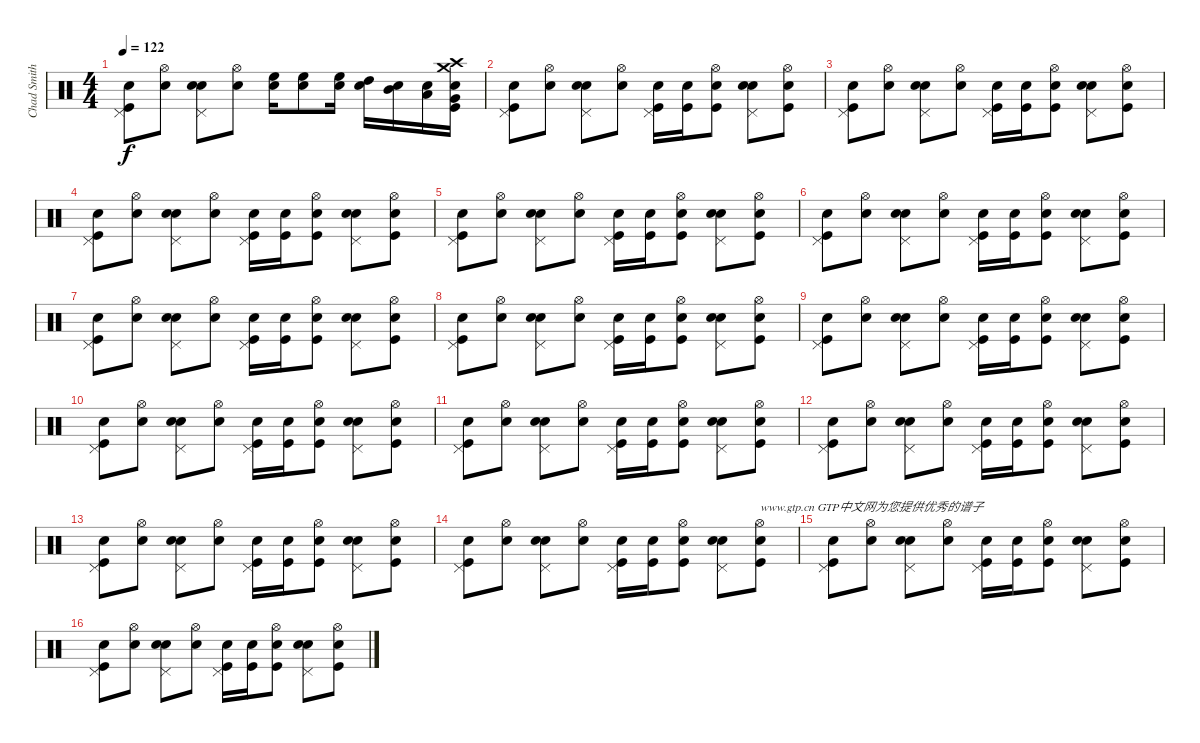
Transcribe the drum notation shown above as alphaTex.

\track ("Chad Smith" "Chad Smith") {instrument percussion}
\staff {score}
\articulation defaults
\ts (4 4)
\tempo 122
\clef neutral
\ks c
("Snare (hit)" "Pedal Hi-Hat (hit)" "Kick (hit)").8{dy f} ("Snare (hit)" "Hi-Hat (open)").8 ("Snare (hit)" "Pedal Hi-Hat (hit)" "Electric Snare (hit)").8 ("Snare (hit)" "Hi-Hat (open)").8 ("Snare (hit)" "High Floor Tom (hit)").16 ("Snare (hit)" "High Floor Tom (hit)").8 ("Snare (hit)" "High Floor Tom (hit)").16 ("Snare (hit)" "High Tom (hit)").16 ("Snare (hit)" "Mid Tom (hit)").16 ("Snare (hit)" "Low Tom (hit)").16 ("Snare (hit)" "Crash medium (hit)" "Very Low Tom (hit)" "Kick (hit)" "Crash high (hit)").16 |
("Snare (hit)" "Pedal Hi-Hat (hit)" "Kick (hit)").8 ("Snare (hit)" "Hi-Hat (open)").8 ("Snare (hit)" "Pedal Hi-Hat (hit)" "Electric Snare (hit)").8 ("Snare (hit)" "Hi-Hat (open)").8 ("Snare (hit)" "Kick (hit)" "Pedal Hi-Hat (hit)").16 ("Snare (hit)" "Kick (hit)").16 ("Snare (hit)" "Kick (hit)" "Hi-Hat (open)").8 ("Snare (hit)" "Pedal Hi-Hat (hit)" "Electric Snare (hit)").8 ("Snare (hit)" "Kick (hit)" "Hi-Hat (open)").8 |
("Snare (hit)" "Pedal Hi-Hat (hit)" "Kick (hit)").8 ("Snare (hit)" "Hi-Hat (open)").8 ("Snare (hit)" "Pedal Hi-Hat (hit)" "Electric Snare (hit)").8 ("Snare (hit)" "Hi-Hat (open)").8 ("Snare (hit)" "Pedal Hi-Hat (hit)" "Kick (hit)").16 ("Snare (hit)" "Kick (hit)").16 ("Snare (hit)" "Hi-Hat (open)" "Kick (hit)").8 ("Snare (hit)" "Pedal Hi-Hat (hit)" "Electric Snare (hit)").8 ("Snare (hit)" "Hi-Hat (open)" "Kick (hit)").8 |
("Snare (hit)" "Pedal Hi-Hat (hit)" "Kick (hit)").8 ("Snare (hit)" "Hi-Hat (open)").8 ("Snare (hit)" "Pedal Hi-Hat (hit)" "Electric Snare (hit)").8 ("Snare (hit)" "Hi-Hat (open)").8 ("Snare (hit)" "Pedal Hi-Hat (hit)" "Kick (hit)").16 ("Snare (hit)" "Kick (hit)").16 ("Snare (hit)" "Hi-Hat (open)" "Kick (hit)").8 ("Snare (hit)" "Pedal Hi-Hat (hit)" "Electric Snare (hit)").8 ("Snare (hit)" "Kick (hit)" "Hi-Hat (open)").8 |
("Snare (hit)" "Pedal Hi-Hat (hit)" "Kick (hit)").8 ("Snare (hit)" "Hi-Hat (open)").8 ("Snare (hit)" "Pedal Hi-Hat (hit)" "Electric Snare (hit)").8 ("Snare (hit)" "Hi-Hat (open)").8 ("Snare (hit)" "Pedal Hi-Hat (hit)" "Kick (hit)").16 ("Snare (hit)" "Kick (hit)").16 ("Snare (hit)" "Kick (hit)" "Hi-Hat (open)").8 ("Snare (hit)" "Pedal Hi-Hat (hit)" "Electric Snare (hit)").8 ("Snare (hit)" "Hi-Hat (open)" "Kick (hit)").8 |
("Snare (hit)" "Pedal Hi-Hat (hit)" "Kick (hit)").8 ("Snare (hit)" "Hi-Hat (open)").8 ("Snare (hit)" "Electric Snare (hit)" "Pedal Hi-Hat (hit)").8 ("Snare (hit)" "Hi-Hat (open)").8 ("Snare (hit)" "Kick (hit)" "Pedal Hi-Hat (hit)").16 ("Snare (hit)" "Kick (hit)").16 ("Snare (hit)" "Kick (hit)" "Hi-Hat (open)").8 ("Snare (hit)" "Electric Snare (hit)" "Pedal Hi-Hat (hit)").8 ("Snare (hit)" "Hi-Hat (open)" "Kick (hit)").8 |
("Snare (hit)" "Pedal Hi-Hat (hit)" "Kick (hit)").8 ("Snare (hit)" "Hi-Hat (open)").8 ("Snare (hit)" "Electric Snare (hit)" "Pedal Hi-Hat (hit)").8 ("Snare (hit)" "Hi-Hat (open)").8 ("Snare (hit)" "Pedal Hi-Hat (hit)" "Kick (hit)").16 ("Snare (hit)" "Kick (hit)").16 ("Snare (hit)" "Kick (hit)" "Hi-Hat (open)").8 ("Snare (hit)" "Pedal Hi-Hat (hit)" "Electric Snare (hit)").8 ("Snare (hit)" "Kick (hit)" "Hi-Hat (open)").8 |
("Snare (hit)" "Pedal Hi-Hat (hit)" "Kick (hit)").8 ("Snare (hit)" "Hi-Hat (open)").8 ("Snare (hit)" "Pedal Hi-Hat (hit)" "Electric Snare (hit)").8 ("Snare (hit)" "Hi-Hat (open)").8 ("Snare (hit)" "Kick (hit)" "Pedal Hi-Hat (hit)").16 ("Snare (hit)" "Kick (hit)").16 ("Snare (hit)" "Kick (hit)" "Hi-Hat (open)").8 ("Snare (hit)" "Electric Snare (hit)" "Pedal Hi-Hat (hit)").8 ("Snare (hit)" "Hi-Hat (open)" "Kick (hit)").8 |
("Snare (hit)" "Pedal Hi-Hat (hit)" "Kick (hit)").8 ("Snare (hit)" "Hi-Hat (open)").8 ("Snare (hit)" "Pedal Hi-Hat (hit)" "Electric Snare (hit)").8 ("Snare (hit)" "Hi-Hat (open)").8 ("Snare (hit)" "Pedal Hi-Hat (hit)" "Kick (hit)").16 ("Snare (hit)" "Kick (hit)").16 ("Snare (hit)" "Hi-Hat (open)" "Kick (hit)").8 ("Snare (hit)" "Pedal Hi-Hat (hit)" "Electric Snare (hit)").8 ("Snare (hit)" "Hi-Hat (open)" "Kick (hit)").8 |
("Snare (hit)" "Pedal Hi-Hat (hit)" "Kick (hit)").8 ("Snare (hit)" "Hi-Hat (open)").8 ("Snare (hit)" "Pedal Hi-Hat (hit)" "Electric Snare (hit)").8 ("Snare (hit)" "Hi-Hat (open)").8 ("Snare (hit)" "Pedal Hi-Hat (hit)" "Kick (hit)").16 ("Snare (hit)" "Kick (hit)").16 ("Snare (hit)" "Hi-Hat (open)" "Kick (hit)").8 ("Snare (hit)" "Electric Snare (hit)" "Pedal Hi-Hat (hit)").8 ("Snare (hit)" "Kick (hit)" "Hi-Hat (open)").8 |
("Snare (hit)" "Pedal Hi-Hat (hit)" "Kick (hit)").8 ("Snare (hit)" "Hi-Hat (open)").8 ("Snare (hit)" "Electric Snare (hit)" "Pedal Hi-Hat (hit)").8 ("Snare (hit)" "Hi-Hat (open)").8 ("Snare (hit)" "Pedal Hi-Hat (hit)" "Kick (hit)").16 ("Snare (hit)" "Kick (hit)").16 ("Snare (hit)" "Kick (hit)" "Hi-Hat (open)").8 ("Snare (hit)" "Electric Snare (hit)" "Pedal Hi-Hat (hit)").8 ("Snare (hit)" "Kick (hit)" "Hi-Hat (open)").8 |
("Snare (hit)" "Pedal Hi-Hat (hit)" "Kick (hit)").8 ("Snare (hit)" "Hi-Hat (open)").8 ("Snare (hit)" "Electric Snare (hit)" "Pedal Hi-Hat (hit)").8 ("Snare (hit)" "Hi-Hat (open)").8 ("Snare (hit)" "Kick (hit)" "Pedal Hi-Hat (hit)").16 ("Snare (hit)" "Kick (hit)").16 ("Snare (hit)" "Kick (hit)" "Hi-Hat (open)").8 ("Snare (hit)" "Electric Snare (hit)" "Pedal Hi-Hat (hit)").8 ("Snare (hit)" "Kick (hit)" "Hi-Hat (open)").8 |
("Snare (hit)" "Pedal Hi-Hat (hit)" "Kick (hit)").8 ("Snare (hit)" "Hi-Hat (open)").8 ("Snare (hit)" "Pedal Hi-Hat (hit)" "Electric Snare (hit)").8 ("Snare (hit)" "Hi-Hat (open)").8 ("Snare (hit)" "Kick (hit)" "Pedal Hi-Hat (hit)").16 ("Snare (hit)" "Kick (hit)").16 ("Snare (hit)" "Kick (hit)" "Hi-Hat (open)").8 ("Snare (hit)" "Pedal Hi-Hat (hit)" "Electric Snare (hit)").8 ("Snare (hit)" "Kick (hit)" "Hi-Hat (open)").8 |
("Snare (hit)" "Pedal Hi-Hat (hit)" "Kick (hit)").8 ("Snare (hit)" "Hi-Hat (open)").8 ("Snare (hit)" "Pedal Hi-Hat (hit)" "Electric Snare (hit)").8 ("Snare (hit)" "Hi-Hat (open)").8 ("Snare (hit)" "Pedal Hi-Hat (hit)" "Kick (hit)").16 ("Snare (hit)" "Kick (hit)").16 ("Snare (hit)" "Hi-Hat (open)" "Kick (hit)").8 ("Snare (hit)" "Electric Snare (hit)" "Pedal Hi-Hat (hit)").8 ("Snare (hit)" "Kick (hit)" "Hi-Hat (open)").8{txt "www.gtp.cn GTP中文网为您提供优秀的谱子"} |
("Snare (hit)" "Pedal Hi-Hat (hit)" "Kick (hit)").8 ("Snare (hit)" "Hi-Hat (open)").8 ("Snare (hit)" "Electric Snare (hit)" "Pedal Hi-Hat (hit)").8 ("Snare (hit)" "Hi-Hat (open)").8 ("Snare (hit)" "Kick (hit)" "Pedal Hi-Hat (hit)").16 ("Snare (hit)" "Kick (hit)").16 ("Snare (hit)" "Hi-Hat (open)" "Kick (hit)").8 ("Snare (hit)" "Electric Snare (hit)" "Pedal Hi-Hat (hit)").8 ("Snare (hit)" "Hi-Hat (open)" "Kick (hit)").8 |
("Snare (hit)" "Kick (hit)" "Pedal Hi-Hat (hit)").8 ("Snare (hit)" "Hi-Hat (open)").8 ("Snare (hit)" "Electric Snare (hit)" "Pedal Hi-Hat (hit)").8 ("Snare (hit)" "Hi-Hat (open)").8 ("Snare (hit)" "Pedal Hi-Hat (hit)" "Kick (hit)").16 ("Snare (hit)" "Kick (hit)").16 ("Snare (hit)" "Kick (hit)" "Hi-Hat (open)").8 ("Snare (hit)" "Electric Snare (hit)" "Pedal Hi-Hat (hit)").8 ("Snare (hit)" "Hi-Hat (open)" "Kick (hit)").8
